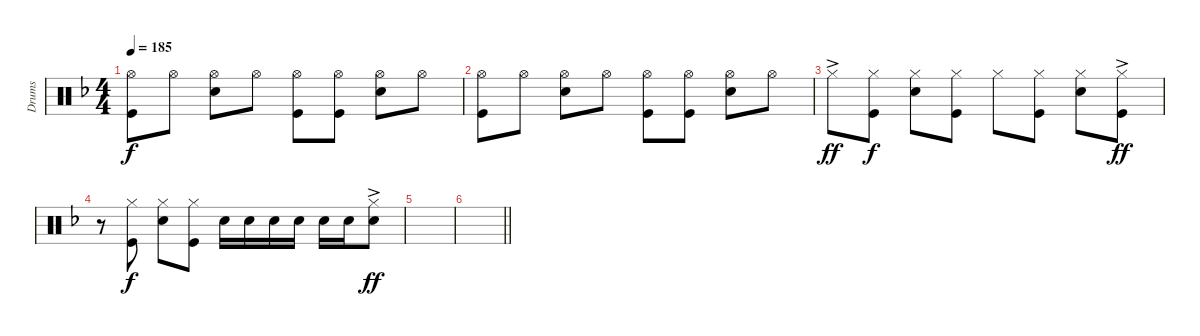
\track ("Drums" "Drums") {instrument percussion}
\staff {score}
\articulation defaults
\ts (4 4)
\tempo 185
\clef neutral
\ks f
("Kick (hit)" "Hi-Hat (open)").8{dy f} "Hi-Hat (open)".8 ("Hi-Hat (open)" "Snare (hit) 2").8 "Hi-Hat (open)".8 ("Hi-Hat (open)" "Kick (hit)").8 ("Kick (hit)" "Hi-Hat (open)").8 ("Hi-Hat (open)" "Snare (hit) 2").8 "Hi-Hat (open)".8 |
("Kick (hit)" "Hi-Hat (open)").8 "Hi-Hat (open)".8 ("Hi-Hat (open)" "Snare (hit) 2").8 "Hi-Hat (open)".8 ("Hi-Hat (open)" "Kick (hit)").8 ("Kick (hit)" "Hi-Hat (open)").8 ("Hi-Hat (open)" "Snare (hit) 2").8 "Hi-Hat (open)".8 |
"Hi-Hat (closed)"{ac}.8{dy ff} ("Hi-Hat (closed)" "Kick (hit)").8{dy f} ("Snare (hit) 2" "Hi-Hat (closed)").8 ("Hi-Hat (closed)" "Kick (hit)").8 "Hi-Hat (closed)".8 ("Hi-Hat (closed)" "Kick (hit)").8 ("Snare (hit) 2" "Hi-Hat (closed)").8 ("Hi-Hat (closed)"{ac} "Kick (hit)").8{dy ff} |
r.8 ("Hi-Hat (closed)" "Kick (hit)").8{dy f} ("Snare (hit) 2" "Hi-Hat (closed)").8 ("Hi-Hat (closed)" "Kick (hit)").8 "Snare (hit) 2".16 "Snare (hit) 2".16 "Snare (hit) 2".16 "Snare (hit) 2".16 "Snare (hit) 2".16 "Snare (hit) 2".16 ("Hi-Hat (closed)"{ac} "Snare (hit) 2").8{dy ff} |
|
\barLineRight lightlight
